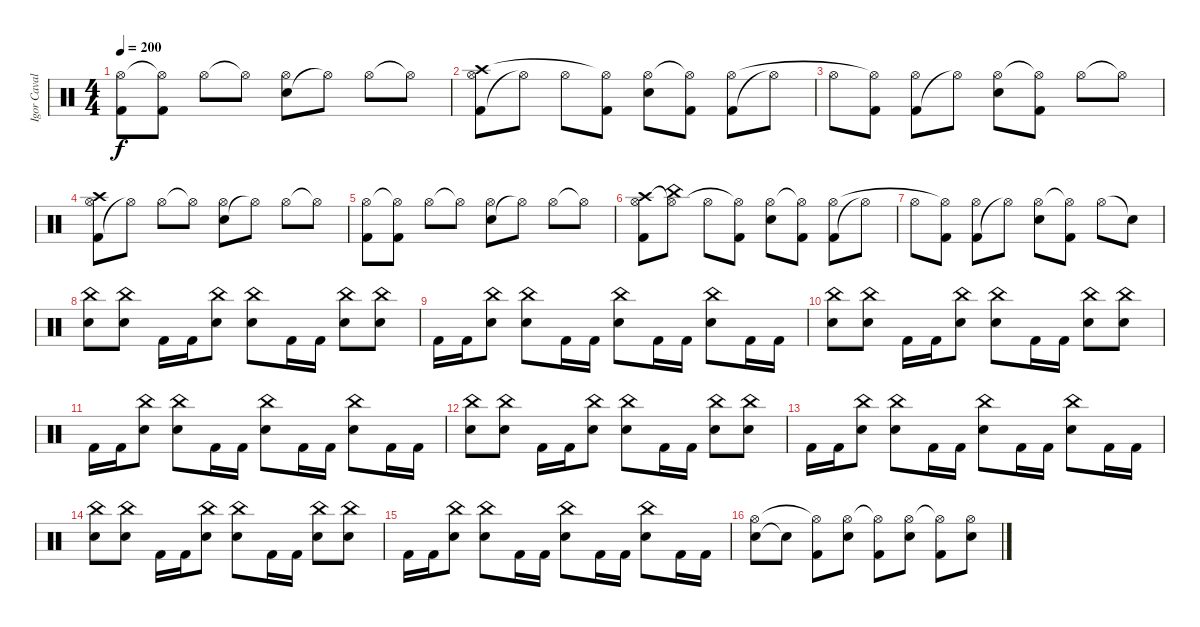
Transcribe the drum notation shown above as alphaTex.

\track ("Igor Cavalera" "Igor Caval") {instrument percussion}
\staff {score}
\articulation defaults
\ts (4 4)
\tempo 200
\clef neutral
\ks c
("Kick (hit) 2" "Hi-Hat (open)").8{dy f} ("Kick (hit) 2" "Hi-Hat (open)"{t}).8 "Hi-Hat (open)".8 "Hi-Hat (open)"{t}.8 ("Snare (hit) 2" "Hi-Hat (open)").8 "Hi-Hat (open)"{t}.8 "Hi-Hat (open)".8 "Hi-Hat (open)"{t}.8 |
("Kick (hit) 2" "Crash high (hit)" "Hi-Hat (open)").8 "Hi-Hat (open)"{t}.8 "Hi-Hat (open)".8 ("Kick (hit) 2" "Hi-Hat (open)"{t}).8 ("Snare (hit) 2" "Hi-Hat (open)").8 ("Kick (hit) 2" "Hi-Hat (open)"{t}).8 ("Kick (hit) 2" "Hi-Hat (open)").8 "Hi-Hat (open)"{t}.8 |
"Hi-Hat (open)".8 ("Kick (hit) 2" "Hi-Hat (open)"{t}).8 ("Kick (hit) 2" "Hi-Hat (open)").8 "Hi-Hat (open)"{t}.8 ("Snare (hit) 2" "Hi-Hat (open)").8 ("Kick (hit) 2" "Hi-Hat (open)"{t}).8 "Hi-Hat (open)".8 "Hi-Hat (open)"{t}.8 |
("Kick (hit) 2" "Crash high (hit)" "Hi-Hat (open)").8 "Hi-Hat (open)"{t}.8 "Hi-Hat (open)".8 "Hi-Hat (open)"{t}.8 ("Snare (hit) 2" "Hi-Hat (open)").8 "Hi-Hat (open)"{t}.8 "Hi-Hat (open)".8 "Hi-Hat (open)"{t}.8 |
("Kick (hit) 2" "Hi-Hat (open)").8 ("Kick (hit) 2" "Hi-Hat (open)"{t}).8 "Hi-Hat (open)".8 "Hi-Hat (open)"{t}.8 ("Snare (hit) 2" "Hi-Hat (open)").8 "Hi-Hat (open)"{t}.8 "Hi-Hat (open)".8 "Hi-Hat (open)"{t}.8 |
("Kick (hit) 2" "Crash high (hit)" "Hi-Hat (open)").8 ("China (hit)" "Hi-Hat (open)"{t}).8 "Hi-Hat (open)".8 ("Kick (hit) 2" "Hi-Hat (open)"{t}).8 ("Snare (hit) 2" "Hi-Hat (open)").8 ("Kick (hit) 2" "Hi-Hat (open)"{t}).8 ("Kick (hit) 2" "Hi-Hat (open)").8 "Hi-Hat (open)"{t}.8 |
"Hi-Hat (open)".8 ("Kick (hit) 2" "Hi-Hat (open)"{t}).8 ("Kick (hit) 2" "Hi-Hat (open)").8 "Hi-Hat (open)"{t}.8 ("Snare (hit) 2" "Hi-Hat (open)").8 ("Kick (hit) 2" "Hi-Hat (open)"{t}).8 "Hi-Hat (open)".8 "Snare (hit)"{t}.8 |
("Snare (hit) 2" "China (hit)").8 ("Snare (hit) 2" "China (hit)").8 "Kick (hit) 2".16 "Kick (hit) 2".16 ("Snare (hit) 2" "China (hit)").8 ("Snare (hit) 2" "China (hit)").8 "Kick (hit) 2".16 "Kick (hit) 2".16 ("Snare (hit) 2" "China (hit)").8 ("Snare (hit) 2" "China (hit)").8 |
"Kick (hit) 2".16 "Kick (hit) 2".16 ("Snare (hit) 2" "China (hit)").8 ("Snare (hit) 2" "China (hit)").8 "Kick (hit) 2".16 "Kick (hit) 2".16 ("Snare (hit) 2" "China (hit)").8 "Kick (hit) 2".16 "Kick (hit) 2".16 ("Snare (hit) 2" "China (hit)").8 "Kick (hit) 2".16 "Kick (hit) 2".16 |
("Snare (hit) 2" "China (hit)").8 ("Snare (hit) 2" "China (hit)").8 "Kick (hit) 2".16 "Kick (hit) 2".16 ("Snare (hit) 2" "China (hit)").8 ("Snare (hit) 2" "China (hit)").8 "Kick (hit) 2".16 "Kick (hit) 2".16 ("Snare (hit) 2" "China (hit)").8 ("Snare (hit) 2" "China (hit)").8 |
"Kick (hit) 2".16 "Kick (hit) 2".16 ("Snare (hit) 2" "China (hit)").8 ("Snare (hit) 2" "China (hit)").8 "Kick (hit) 2".16 "Kick (hit) 2".16 ("Snare (hit) 2" "China (hit)").8 "Kick (hit) 2".16 "Kick (hit) 2".16 ("Snare (hit) 2" "China (hit)").8 "Kick (hit) 2".16 "Kick (hit) 2".16 |
("Snare (hit) 2" "China (hit)").8 ("Snare (hit) 2" "China (hit)").8 "Kick (hit) 2".16 "Kick (hit) 2".16 ("Snare (hit) 2" "China (hit)").8 ("Snare (hit) 2" "China (hit)").8 "Kick (hit) 2".16 "Kick (hit) 2".16 ("Snare (hit) 2" "China (hit)").8 ("Snare (hit) 2" "China (hit)").8 |
"Kick (hit) 2".16 "Kick (hit) 2".16 ("Snare (hit) 2" "China (hit)").8 ("Snare (hit) 2" "China (hit)").8 "Kick (hit) 2".16 "Kick (hit) 2".16 ("Snare (hit) 2" "China (hit)").8 "Kick (hit) 2".16 "Kick (hit) 2".16 ("Snare (hit) 2" "China (hit)").8 "Kick (hit) 2".16 "Kick (hit) 2".16 |
("Snare (hit) 2" "China (hit)").8 ("Snare (hit) 2" "China (hit)").8 "Kick (hit) 2".16 "Kick (hit) 2".16 ("Snare (hit) 2" "China (hit)").8 ("Snare (hit) 2" "China (hit)").8 "Kick (hit) 2".16 "Kick (hit) 2".16 ("Snare (hit) 2" "China (hit)").8 ("Snare (hit) 2" "China (hit)").8 |
"Kick (hit) 2".16 "Kick (hit) 2".16 ("Snare (hit) 2" "China (hit)").8 ("Snare (hit) 2" "China (hit)").8 "Kick (hit) 2".16 "Kick (hit) 2".16 ("Snare (hit) 2" "China (hit)").8 "Kick (hit) 2".16 "Kick (hit) 2".16 ("Snare (hit) 2" "China (hit)").8 "Kick (hit) 2".16 "Kick (hit) 2".16 |
("Snare (hit) 2" "Hi-Hat (open)").8 "Snare (hit)"{t}.8 ("Kick (hit) 2" "Hi-Hat (open)"{t}).8 ("Snare (hit) 2" "Hi-Hat (open)").8 ("Kick (hit) 2" "Hi-Hat (open)"{t}).8 ("Snare (hit) 2" "Hi-Hat (open)").8 ("Kick (hit) 2" "Hi-Hat (open)"{t}).8 ("Snare (hit) 2" "Hi-Hat (open)").8
